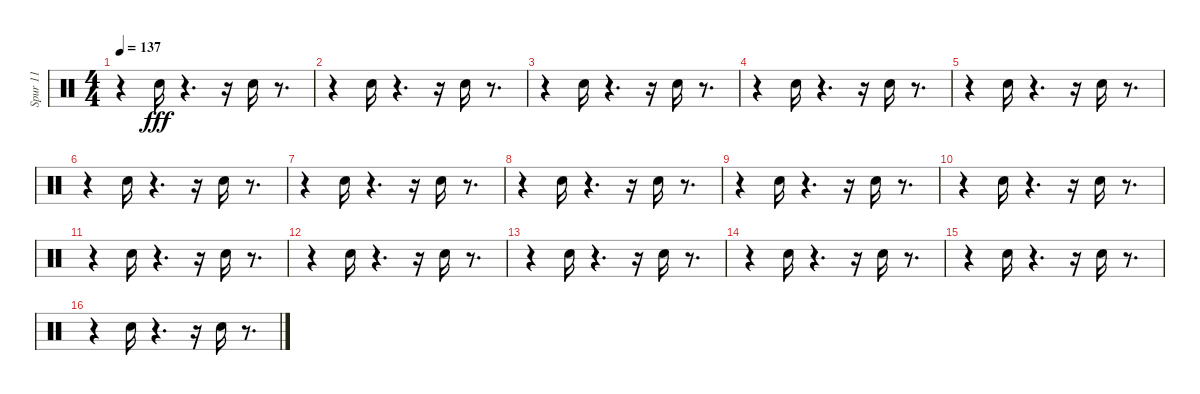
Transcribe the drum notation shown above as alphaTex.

\track ("Spur 11" "Spur 11") {instrument percussion}
\staff {score}
\articulation defaults
\ts (4 4)
\tempo 137
\clef neutral
\ks c
r.4{dy fff} "Snare (hit) 2".16 r.4{d} r.16 "Snare (hit) 2".16 r.8{d} |
r.4 "Snare (hit) 2".16 r.4{d} r.16 "Snare (hit) 2".16 r.8{d} |
r.4 "Snare (hit) 2".16 r.4{d} r.16 "Snare (hit) 2".16 r.8{d} |
r.4 "Snare (hit) 2".16 r.4{d} r.16 "Snare (hit) 2".16 r.8{d} |
r.4 "Snare (hit) 2".16 r.4{d} r.16 "Snare (hit) 2".16 r.8{d} |
r.4 "Snare (hit) 2".16 r.4{d} r.16 "Snare (hit) 2".16 r.8{d} |
r.4 "Snare (hit) 2".16 r.4{d} r.16 "Snare (hit) 2".16 r.8{d} |
r.4 "Snare (hit) 2".16 r.4{d} r.16 "Snare (hit) 2".16 r.8{d} |
r.4 "Snare (hit) 2".16 r.4{d} r.16 "Snare (hit) 2".16 r.8{d} |
r.4 "Snare (hit) 2".16 r.4{d} r.16 "Snare (hit) 2".16 r.8{d} |
r.4 "Snare (hit) 2".16 r.4{d} r.16 "Snare (hit) 2".16 r.8{d} |
r.4 "Snare (hit) 2".16 r.4{d} r.16 "Snare (hit) 2".16 r.8{d} |
r.4 "Snare (hit) 2".16 r.4{d} r.16 "Snare (hit) 2".16 r.8{d} |
r.4 "Snare (hit) 2".16 r.4{d} r.16 "Snare (hit) 2".16 r.8{d} |
r.4 "Snare (hit) 2".16 r.4{d} r.16 "Snare (hit) 2".16 r.8{d} |
r.4 "Snare (hit) 2".16 r.4{d} r.16 "Snare (hit) 2".16 r.8{d}
